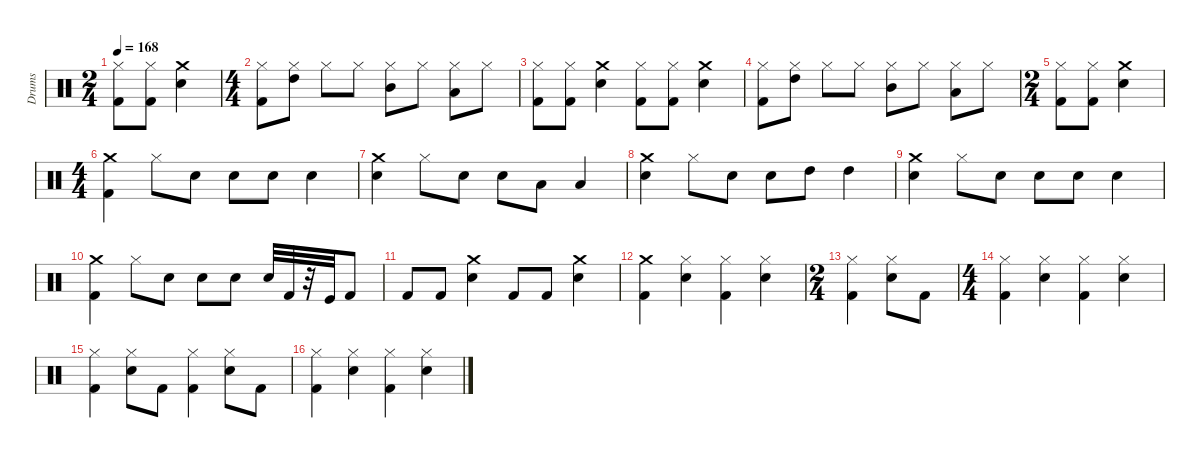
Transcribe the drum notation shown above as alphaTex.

\defaultSystemsLayout 4
\hideDynamics
\bracketExtendMode nobrackets
\firstSystemTrackNameMode fullname
\otherSystemsTrackNameOrientation horizontal
\track ("Drums" "drm.") {instrument percussion}
\staff {score}
\articulation defaults
\ts (2 4)
\beaming (8 2 2)
\tempo 168
\clef neutral
\ks c
("Kick (hit) 2" "Hi-Hat (closed)").8{dy fff beam Down} ("Kick (hit) 2" "Hi-Hat (closed)").8{beam Down} ("Snare (hit) 2" "Crash medium (hit)").4{beam Down} |
\ts (4 4)
\beaming (8 2 2 2 2)
("Hi-Hat (closed)" "Kick (hit) 2").8{beam Down} ("High Tom (hit)" "Hi-Hat (closed)").8{beam Down} "Hi-Hat (closed)".8{beam Down} "Hi-Hat (closed)".8{beam Down} ("Mid Tom (hit)" "Hi-Hat (closed)").8{beam Down} "Hi-Hat (closed)".8{beam Down} ("Hi-Hat (closed)" "Low Tom (hit)").8{beam Down} "Hi-Hat (closed)".8{beam Down} |
("Hi-Hat (closed)" "Kick (hit) 2").8{beam Down} ("Hi-Hat (closed)" "Kick (hit) 2").8{beam Down} ("Snare (hit) 2" "Crash medium (hit)").4{beam Down} ("Kick (hit) 2" "Hi-Hat (closed)").8{beam Down} ("Kick (hit) 2" "Hi-Hat (closed)").8{beam Down} ("Crash medium (hit)" "Snare (hit) 2").4{beam Down} |
("Hi-Hat (closed)" "Kick (hit) 2").8{beam Down} ("High Tom (hit)" "Hi-Hat (closed)").8{beam Down} "Hi-Hat (closed)".8{beam Down} "Hi-Hat (closed)".8{beam Down} ("Mid Tom (hit)" "Hi-Hat (closed)").8{beam Down} "Hi-Hat (closed)".8{beam Down} ("Hi-Hat (closed)" "Low Tom (hit)").8{beam Down} "Hi-Hat (closed)".8{beam Down} |
\ts (2 4)
\beaming (8 2 2)
("Hi-Hat (closed)" "Kick (hit) 2").8{beam Down} ("Hi-Hat (closed)" "Kick (hit) 2").8{beam Down} ("Crash medium (hit)" "Snare (hit) 2").4{beam Down} |
\ts (4 4)
\beaming (8 2 2 2 2)
("Kick (hit) 2" "Crash medium (hit)").4{beam Down} "Hi-Hat (closed)".8{beam Down} "Snare (hit) 2".8{beam Down} "Snare (hit) 2".8{beam Down} "Snare (hit) 2".8{beam Down} "Snare (hit) 2".4{beam Down} |
("Snare (hit) 2" "Crash medium (hit)").4{beam Down} "Hi-Hat (closed)".8{beam Down} "Snare (hit) 2".8{beam Down} "Snare (hit) 2".8{beam Down} "Low Tom (hit)".8{beam Down} "Low Tom (hit)".4{beam Up} |
("Snare (hit) 2" "Crash medium (hit)").4{beam Down} "Hi-Hat (closed)".8{beam Down} "Snare (hit) 2".8{beam Down} "Snare (hit) 2".8{beam Down} "High Tom (hit)".8{beam Down} "High Tom (hit)".4{beam Down} |
("Snare (hit) 2" "Crash medium (hit)").4{beam Down} "Hi-Hat (closed)".8{beam Down} "Snare (hit) 2".8{beam Down} "Snare (hit) 2".8{beam Down} "Snare (hit) 2".8{beam Down} "Snare (hit) 2".4{beam Down} |
("Kick (hit) 2" "Crash medium (hit)").4{beam Down} "Hi-Hat (closed)".8{beam Down} "Snare (hit) 2".8{beam Down} "Snare (hit) 2".8{beam Down} "Snare (hit) 2".8{beam Down} "Snare (hit) 2".32{beam Up} "Kick (hit) 2".32{beam Up} r.32{beam Up} "Kick (hit)".32{beam Up} "Kick (hit) 2".8{beam Up} |
"Kick (hit) 2".8{beam Up} "Kick (hit) 2".8{beam Up} ("Snare (hit) 2" "Crash medium (hit)").4{beam Down} "Kick (hit) 2".8{beam Up} "Kick (hit) 2".8{beam Up} ("Crash medium (hit)" "Snare (hit) 2").4{beam Down} |
("Kick (hit) 2" "Crash medium (hit)").4{beam Down} ("Hi-Hat (closed)" "Snare (hit) 2").4{beam Down} ("Hi-Hat (closed)" "Kick (hit) 2").4{beam Down} ("Snare (hit) 2" "Hi-Hat (closed)").4{beam Down} |
\ts (2 4)
\beaming (8 2 2)
("Hi-Hat (closed)" "Kick (hit) 2").4{beam Down} ("Snare (hit) 2" "Hi-Hat (closed)").8{beam Down} "Kick (hit) 2".8{beam Down} |
\ts (4 4)
\beaming (8 2 2 2 2)
("Kick (hit) 2" "Hi-Hat (closed)").4{beam Down} ("Snare (hit) 2" "Hi-Hat (closed)").4{beam Down} ("Kick (hit) 2" "Hi-Hat (closed)").4{beam Down} ("Snare (hit) 2" "Hi-Hat (closed)").4{beam Down} |
("Hi-Hat (closed)" "Kick (hit) 2").4{beam Down} ("Snare (hit) 2" "Hi-Hat (closed)").8{beam Down} "Kick (hit) 2".8{beam Down} ("Kick (hit) 2" "Hi-Hat (closed)").4{beam Down} ("Hi-Hat (closed)" "Snare (hit) 2").8{beam Down} "Kick (hit) 2".8{beam Down} |
("Hi-Hat (closed)" "Kick (hit) 2").4{beam Down} ("Hi-Hat (closed)" "Snare (hit) 2").4{beam Down} ("Hi-Hat (closed)" "Kick (hit) 2").4{beam Down} ("Snare (hit) 2" "Hi-Hat (closed)").4{beam Down}
